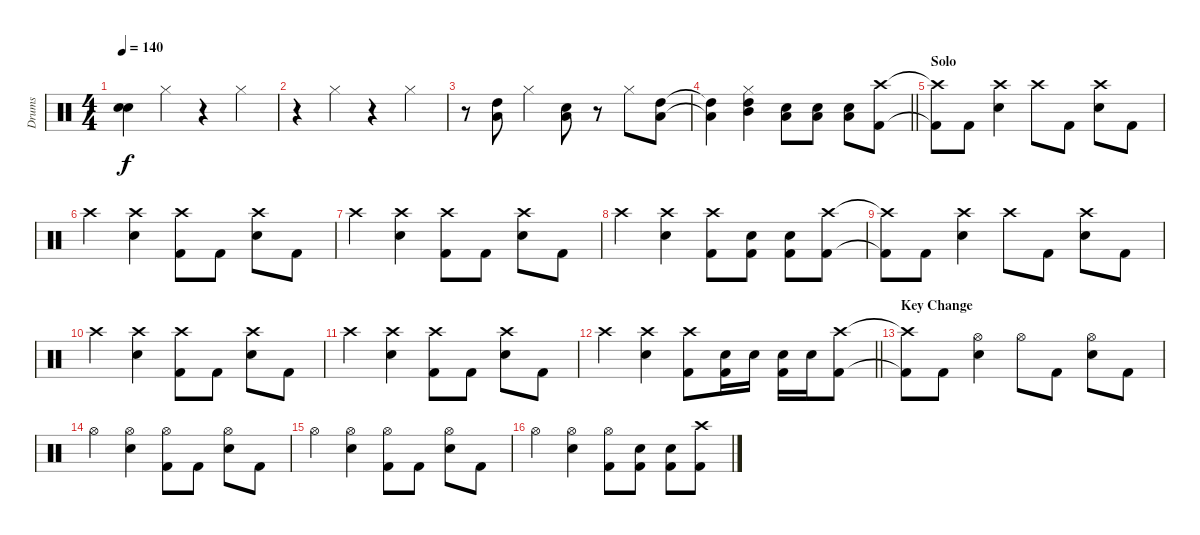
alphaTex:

\track ("Drums" "Drums") {instrument percussion}
\staff {score}
\articulation defaults
\ts (4 4)
\tempo 140
\clef neutral
\ks c
("Snare (hit)"{t} "Snare (hit)"{t}).4{dy f} "Hi-Hat (closed)".4 r.4 "Hi-Hat (closed)".4 |
r.4 "Hi-Hat (closed)".4 r.4 "Hi-Hat (closed)".4 |
r.8 ("High Tom (hit)" "Low Floor Tom (hit)").8 "Hi-Hat (closed)".4 ("Electric Snare (hit)" "Low Floor Tom (hit)").8 r.8 "Hi-Hat (closed)".8 ("High Tom (hit)" "Low Floor Tom (hit)").8 |
\barLineRight lightlight
("High Tom (hit)"{t} "Low Floor Tom (hit)"{t}).4 ("Hi-Hat (closed)" "High Tom (hit)" "Mid Tom (hit)").4 ("Low Floor Tom (hit)" "Electric Snare (hit)").8 ("Low Floor Tom (hit)" "Electric Snare (hit)").8 ("Low Floor Tom (hit)" "Electric Snare (hit)").8 ("Crash high (hit)" "Kick (hit) 2").8 |
\section ("" "Solo")
("Crash high (hit)"{t} "Kick (hit) 2"{t}).8 "Kick (hit) 2".8 ("Crash high (hit)" "Electric Snare (hit)").4 "Crash high (hit)".8 "Kick (hit) 2".8 ("Crash high (hit)" "Electric Snare (hit)").8 "Kick (hit) 2".8 |
"Crash high (hit)".4 ("Crash high (hit)" "Electric Snare (hit)").4 ("Crash high (hit)" "Kick (hit) 2").8 "Kick (hit) 2".8 ("Crash high (hit)" "Electric Snare (hit)").8 "Kick (hit) 2".8 |
"Crash high (hit)".4 ("Crash high (hit)" "Electric Snare (hit)").4 ("Crash high (hit)" "Kick (hit) 2").8 "Kick (hit) 2".8 ("Crash high (hit)" "Electric Snare (hit)").8 "Kick (hit) 2".8 |
"Crash high (hit)".4 ("Crash high (hit)" "Electric Snare (hit)").4 ("Crash high (hit)" "Kick (hit) 2").8 ("Electric Snare (hit)" "Kick (hit) 2").8 ("Electric Snare (hit)" "Kick (hit) 2").8 ("Crash high (hit)" "Kick (hit) 2").8 |
("Crash high (hit)"{t} "Kick (hit) 2"{t}).8 "Kick (hit) 2".8 ("Crash high (hit)" "Electric Snare (hit)").4 "Crash high (hit)".8 "Kick (hit) 2".8 ("Crash high (hit)" "Electric Snare (hit)").8 "Kick (hit) 2".8 |
"Crash high (hit)".4 ("Crash high (hit)" "Electric Snare (hit)").4 ("Crash high (hit)" "Kick (hit) 2").8 "Kick (hit) 2".8 ("Crash high (hit)" "Electric Snare (hit)").8 "Kick (hit) 2".8 |
"Crash high (hit)".4 ("Crash high (hit)" "Electric Snare (hit)").4 ("Crash high (hit)" "Kick (hit) 2").8 "Kick (hit) 2".8 ("Crash high (hit)" "Electric Snare (hit)").8 "Kick (hit) 2".8 |
\barLineRight lightlight "Crash high (hit)".4
("Crash high (hit)" "Electric Snare (hit)").4 ("Crash high (hit)" "Kick (hit) 2").8 ("Electric Snare (hit)" "Kick (hit) 2").16 "Electric Snare (hit)".16 ("Electric Snare (hit)" "Kick (hit) 2").16 "Electric Snare (hit)".16 ("Crash high (hit)" "Kick (hit) 2").8 |
\section ("" "Key Change")
("Crash high (hit)"{t} "Kick (hit) 2"{t}).8 "Kick (hit) 2".8 ("Hi-Hat (open)" "Electric Snare (hit)").4 "Hi-Hat (open)".8 "Kick (hit) 2".8 ("Hi-Hat (open)" "Electric Snare (hit)").8 "Kick (hit) 2".8 |
"Hi-Hat (open)".4 ("Hi-Hat (open)" "Electric Snare (hit)").4 ("Hi-Hat (open)" "Kick (hit) 2").8 "Kick (hit) 2".8 ("Hi-Hat (open)" "Electric Snare (hit)").8 "Kick (hit) 2".8 |
"Hi-Hat (open)".4 ("Hi-Hat (open)" "Electric Snare (hit)").4 ("Hi-Hat (open)" "Kick (hit) 2").8 "Kick (hit) 2".8 ("Hi-Hat (open)" "Electric Snare (hit)").8 "Kick (hit) 2".8 |
"Hi-Hat (open)".4 ("Hi-Hat (open)" "Electric Snare (hit)").4 ("Hi-Hat (open)" "Kick (hit) 2").8 ("Electric Snare (hit)" "Kick (hit) 2").8 ("Electric Snare (hit)" "Kick (hit) 2").8 ("Crash high (hit)" "Kick (hit) 2").8
